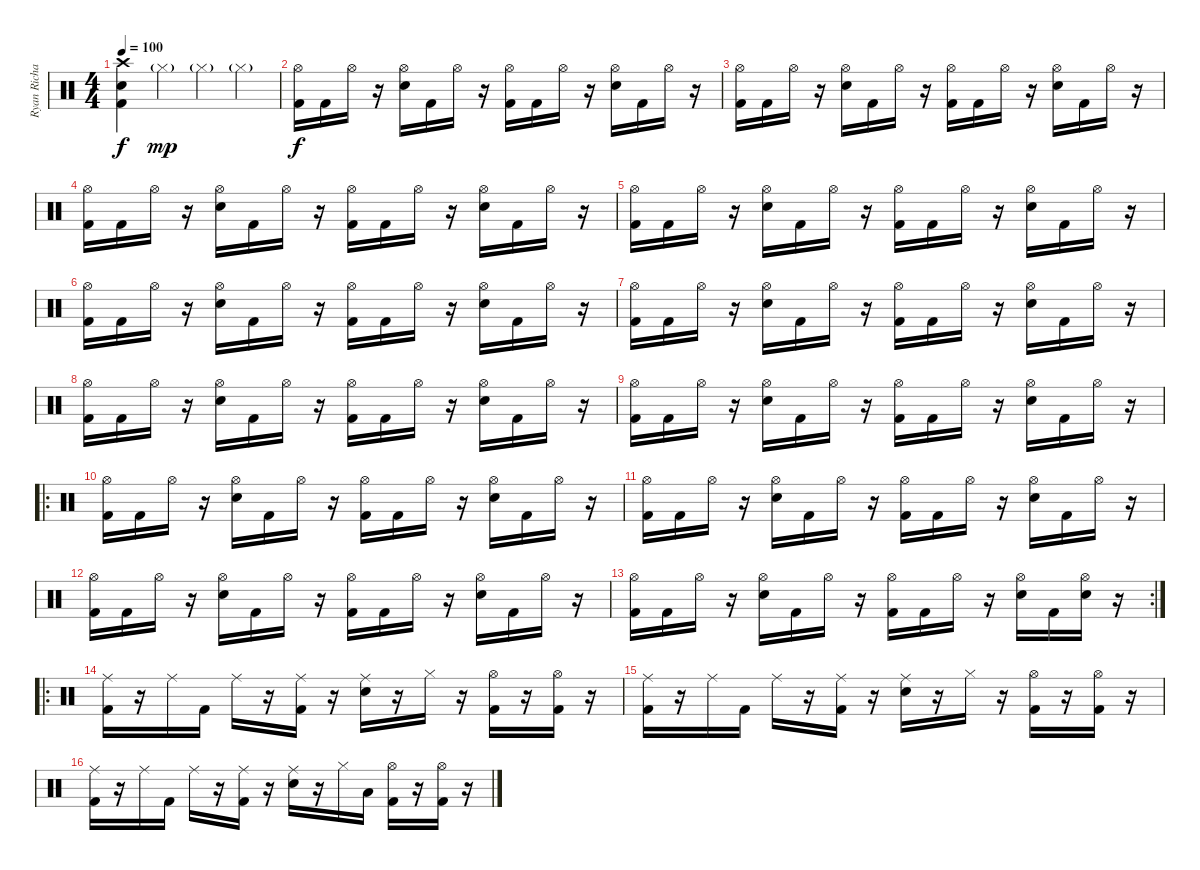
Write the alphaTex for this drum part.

\track ("Ryan Richards" "Ryan Richa") {instrument percussion}
\staff {score}
\articulation defaults
\ts (4 4)
\tempo 100
\clef neutral
\ks c
("Crash high (hit)" "Snare (hit) 2" "Kick (hit) 2").4{dy f} "Hi-Hat (closed)"{g}.4{dy mp} "Hi-Hat (closed)"{g}.4 "Hi-Hat (closed)"{g}.4 |
("Hi-Hat (open)" "Kick (hit) 2").16{dy f} "Kick (hit) 2".16 "Hi-Hat (open)".16 r.16 ("Hi-Hat (open)" "Snare (hit) 2").16 "Kick (hit) 2".16 "Hi-Hat (open)".16 r.16 ("Hi-Hat (open)" "Kick (hit) 2").16 "Kick (hit) 2".16 "Hi-Hat (open)".16 r.16 ("Hi-Hat (open)" "Snare (hit) 2").16 "Kick (hit) 2".16 "Hi-Hat (open)".16 r.16 |
("Hi-Hat (open)" "Kick (hit) 2").16 "Kick (hit) 2".16 "Hi-Hat (open)".16 r.16 ("Hi-Hat (open)" "Snare (hit) 2").16 "Kick (hit) 2".16 "Hi-Hat (open)".16 r.16 ("Hi-Hat (open)" "Kick (hit) 2").16 "Kick (hit) 2".16 "Hi-Hat (open)".16 r.16 ("Hi-Hat (open)" "Snare (hit) 2").16 "Kick (hit) 2".16 "Hi-Hat (open)".16 r.16 |
("Hi-Hat (open)" "Kick (hit) 2").16 "Kick (hit) 2".16 "Hi-Hat (open)".16 r.16 ("Hi-Hat (open)" "Snare (hit) 2").16 "Kick (hit) 2".16 "Hi-Hat (open)".16 r.16 ("Hi-Hat (open)" "Kick (hit) 2").16 "Kick (hit) 2".16 "Hi-Hat (open)".16 r.16 ("Hi-Hat (open)" "Snare (hit) 2").16 "Kick (hit) 2".16 "Hi-Hat (open)".16 r.16 |
("Hi-Hat (open)" "Kick (hit) 2").16 "Kick (hit) 2".16 "Hi-Hat (open)".16 r.16 ("Hi-Hat (open)" "Snare (hit) 2").16 "Kick (hit) 2".16 "Hi-Hat (open)".16 r.16 ("Hi-Hat (open)" "Kick (hit) 2").16 "Kick (hit) 2".16 "Hi-Hat (open)".16 r.16 ("Hi-Hat (open)" "Snare (hit) 2").16 "Kick (hit) 2".16 "Hi-Hat (open)".16 r.16 |
("Hi-Hat (open)" "Kick (hit) 2").16 "Kick (hit) 2".16 "Hi-Hat (open)".16 r.16 ("Hi-Hat (open)" "Snare (hit) 2").16 "Kick (hit) 2".16 "Hi-Hat (open)".16 r.16 ("Hi-Hat (open)" "Kick (hit) 2").16 "Kick (hit) 2".16 "Hi-Hat (open)".16 r.16 ("Hi-Hat (open)" "Snare (hit) 2").16 "Kick (hit) 2".16 "Hi-Hat (open)".16 r.16 |
("Hi-Hat (open)" "Kick (hit) 2").16 "Kick (hit) 2".16 "Hi-Hat (open)".16 r.16 ("Hi-Hat (open)" "Snare (hit) 2").16 "Kick (hit) 2".16 "Hi-Hat (open)".16 r.16 ("Hi-Hat (open)" "Kick (hit) 2").16 "Kick (hit) 2".16 "Hi-Hat (open)".16 r.16 ("Hi-Hat (open)" "Snare (hit) 2").16 "Kick (hit) 2".16 "Hi-Hat (open)".16 r.16 |
("Hi-Hat (open)" "Kick (hit) 2").16 "Kick (hit) 2".16 "Hi-Hat (open)".16 r.16 ("Hi-Hat (open)" "Snare (hit) 2").16 "Kick (hit) 2".16 "Hi-Hat (open)".16 r.16 ("Hi-Hat (open)" "Kick (hit) 2").16 "Kick (hit) 2".16 "Hi-Hat (open)".16 r.16 ("Hi-Hat (open)" "Snare (hit) 2").16 "Kick (hit) 2".16 "Hi-Hat (open)".16 r.16 |
("Hi-Hat (open)" "Kick (hit) 2").16 "Kick (hit) 2".16 "Hi-Hat (open)".16 r.16 ("Hi-Hat (open)" "Snare (hit) 2").16 "Kick (hit) 2".16 "Hi-Hat (open)".16 r.16 ("Hi-Hat (open)" "Kick (hit) 2").16 "Kick (hit) 2".16 "Hi-Hat (open)".16 r.16 ("Hi-Hat (open)" "Snare (hit) 2").16 "Kick (hit) 2".16 "Hi-Hat (open)".16 r.16 |
\ro
("Hi-Hat (open)" "Kick (hit) 2").16 "Kick (hit) 2".16 "Hi-Hat (open)".16 r.16 ("Hi-Hat (open)" "Snare (hit) 2").16 "Kick (hit) 2".16 "Hi-Hat (open)".16 r.16 ("Hi-Hat (open)" "Kick (hit) 2").16 "Kick (hit) 2".16 "Hi-Hat (open)".16 r.16 ("Hi-Hat (open)" "Snare (hit) 2").16 "Kick (hit) 2".16 "Hi-Hat (open)".16 r.16 |
("Hi-Hat (open)" "Kick (hit) 2").16 "Kick (hit) 2".16 "Hi-Hat (open)".16 r.16 ("Hi-Hat (open)" "Snare (hit) 2").16 "Kick (hit) 2".16 "Hi-Hat (open)".16 r.16 ("Hi-Hat (open)" "Kick (hit) 2").16 "Kick (hit) 2".16 "Hi-Hat (open)".16 r.16 ("Hi-Hat (open)" "Snare (hit) 2").16 "Kick (hit) 2".16 "Hi-Hat (open)".16 r.16 |
("Hi-Hat (open)" "Kick (hit) 2").16 "Kick (hit) 2".16 "Hi-Hat (open)".16 r.16 ("Hi-Hat (open)" "Snare (hit) 2").16 "Kick (hit) 2".16 "Hi-Hat (open)".16 r.16 ("Hi-Hat (open)" "Kick (hit) 2").16 "Kick (hit) 2".16 "Hi-Hat (open)".16 r.16 ("Hi-Hat (open)" "Snare (hit) 2").16 "Kick (hit) 2".16 "Hi-Hat (open)".16 r.16 |
\rc 2
("Hi-Hat (open)" "Kick (hit) 2").16 "Kick (hit) 2".16 "Hi-Hat (open)".16 r.16 ("Hi-Hat (open)" "Snare (hit) 2").16 "Kick (hit) 2".16 "Hi-Hat (open)".16 r.16 ("Hi-Hat (open)" "Kick (hit) 2").16 "Kick (hit) 2".16 "Hi-Hat (open)".16 r.16 ("Hi-Hat (open)" "Snare (hit) 2").16 "Kick (hit) 2".16 ("Hi-Hat (open)" "Snare (hit) 2").16 r.16 |
\ro
("Ride (middle)" "Kick (hit) 2").16 r.16 "Ride (middle)".16 "Kick (hit) 2".16 "Ride (middle)".16 r.16 ("Ride (middle)" "Kick (hit) 2").16 r.16 ("Ride (middle)" "Snare (hit) 2").16 r.16 "Hi-Hat (closed)".16 r.16 ("Hi-Hat (open)" "Kick (hit) 2").16 r.16 ("Hi-Hat (open)" "Kick (hit) 2").16 r.16 |
("Ride (middle)" "Kick (hit) 2").16 r.16 "Ride (middle)".16 "Kick (hit) 2".16 "Ride (middle)".16 r.16 ("Ride (middle)" "Kick (hit) 2").16 r.16 ("Ride (middle)" "Snare (hit) 2").16 r.16 "Hi-Hat (closed)".16 r.16 ("Hi-Hat (open)" "Kick (hit) 2").16 r.16 ("Hi-Hat (open)" "Kick (hit) 2").16 r.16 |
("Ride (middle)" "Kick (hit) 2").16 r.16 "Ride (middle)".16 "Kick (hit) 2".16 "Ride (middle)".16 r.16 ("Ride (middle)" "Kick (hit) 2").16 r.16 ("Ride (middle)" "Snare (hit) 2").16 r.16 "Hi-Hat (closed)".16 "Low Floor Tom (hit)".16 ("Hi-Hat (open)" "Kick (hit) 2").16 r.16 ("Hi-Hat (open)" "Kick (hit) 2").16 r.16
